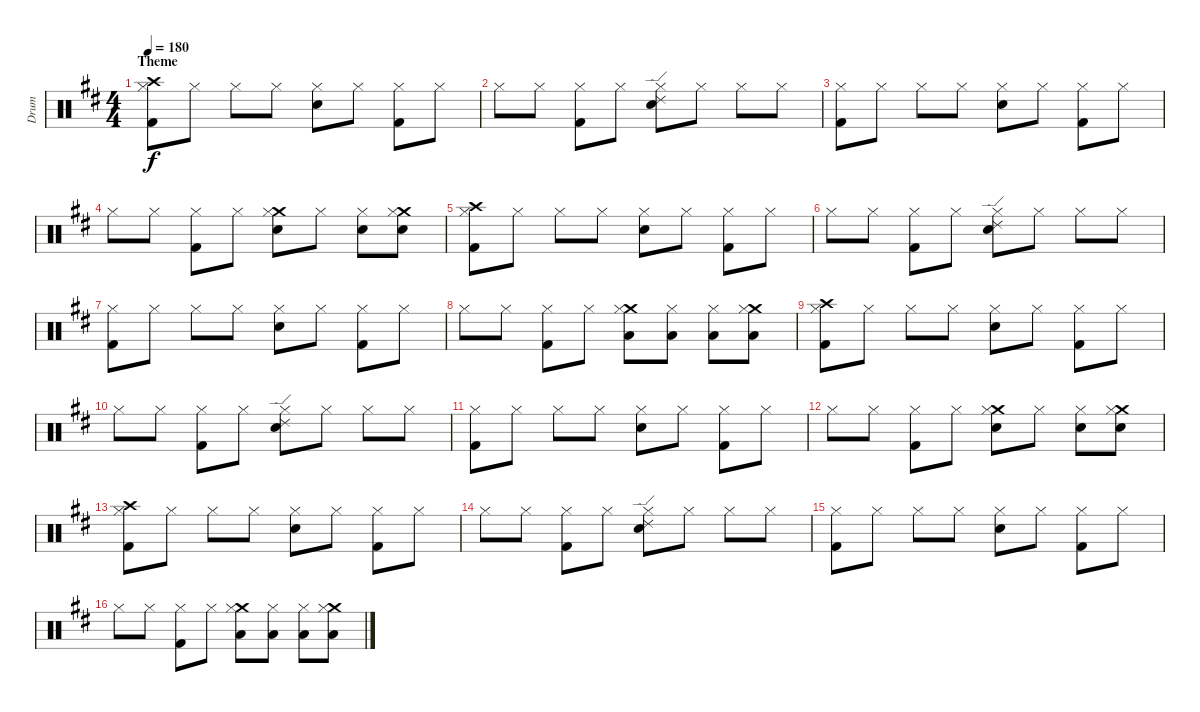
\track ("Drum" "Drum") {instrument percussion}
\staff {score}
\articulation defaults
\ts (4 4)
\section ("" "Theme")
\tempo 180
\clef neutral
\ks d
("Crash high (hit)" "Hi-Hat (closed)" "Kick (hit) 2").8{dy f} "Hi-Hat (closed)".8 "Hi-Hat (closed)".8 "Hi-Hat (closed)".8 ("Hi-Hat (closed)" "Snare (hit) 2").8 "Hi-Hat (closed)".8 ("Hi-Hat (closed)" "Kick (hit) 2").8 "Hi-Hat (closed)".8 |
"Hi-Hat (closed)".8 "Hi-Hat (closed)".8 ("Hi-Hat (closed)" "Kick (hit) 2").8 "Hi-Hat (closed)".8 ("Ride (edge) 2" "Hi-Hat (closed)" "Snare (hit) 2").8 "Hi-Hat (closed)".8 "Hi-Hat (closed)".8 "Hi-Hat (closed)".8 |
("Hi-Hat (closed)" "Kick (hit) 2").8 "Hi-Hat (closed)".8 "Hi-Hat (closed)".8 "Hi-Hat (closed)".8 ("Hi-Hat (closed)" "Snare (hit) 2").8 "Hi-Hat (closed)".8 ("Hi-Hat (closed)" "Kick (hit) 2").8 "Hi-Hat (closed)".8 |
"Hi-Hat (closed)".8 "Hi-Hat (closed)".8 ("Hi-Hat (closed)" "Kick (hit) 2").8 "Hi-Hat (closed)".8 ("Crash medium (hit)" "Hi-Hat (closed)" "Snare (hit) 2").8 "Hi-Hat (closed)".8 ("Hi-Hat (closed)" "Snare (hit) 2").8 ("Crash medium (hit)" "Hi-Hat (closed)" "Snare (hit) 2").8 |
("Crash high (hit)" "Hi-Hat (closed)" "Kick (hit) 2").8 "Hi-Hat (closed)".8 "Hi-Hat (closed)".8 "Hi-Hat (closed)".8 ("Hi-Hat (closed)" "Snare (hit) 2").8 "Hi-Hat (closed)".8 ("Hi-Hat (closed)" "Kick (hit) 2").8 "Hi-Hat (closed)".8 |
"Hi-Hat (closed)".8 "Hi-Hat (closed)".8 ("Hi-Hat (closed)" "Kick (hit) 2").8 "Hi-Hat (closed)".8 ("Ride (edge) 2" "Hi-Hat (closed)" "Snare (hit) 2").8 "Hi-Hat (closed)".8 "Hi-Hat (closed)".8 "Hi-Hat (closed)".8 |
("Hi-Hat (closed)" "Kick (hit) 2").8 "Hi-Hat (closed)".8 "Hi-Hat (closed)".8 "Hi-Hat (closed)".8 ("Hi-Hat (closed)" "Snare (hit) 2").8 "Hi-Hat (closed)".8 ("Hi-Hat (closed)" "Kick (hit) 2").8 "Hi-Hat (closed)".8 |
"Hi-Hat (closed)".8 "Hi-Hat (closed)".8 ("Hi-Hat (closed)" "Kick (hit) 2").8 "Hi-Hat (closed)".8 ("Crash medium (hit)" "Hi-Hat (closed)" "Low Tom (hit)").8 ("Hi-Hat (closed)" "Low Tom (hit)").8 ("Hi-Hat (closed)" "Low Floor Tom (hit)").8 ("Crash medium (hit)" "Hi-Hat (closed)" "Low Floor Tom (hit)").8 |
("Crash high (hit)" "Hi-Hat (closed)" "Kick (hit) 2").8 "Hi-Hat (closed)".8 "Hi-Hat (closed)".8 "Hi-Hat (closed)".8 ("Hi-Hat (closed)" "Snare (hit) 2").8 "Hi-Hat (closed)".8 ("Hi-Hat (closed)" "Kick (hit) 2").8 "Hi-Hat (closed)".8 |
"Hi-Hat (closed)".8 "Hi-Hat (closed)".8 ("Hi-Hat (closed)" "Kick (hit) 2").8 "Hi-Hat (closed)".8 ("Ride (edge) 2" "Hi-Hat (closed)" "Snare (hit) 2").8 "Hi-Hat (closed)".8 "Hi-Hat (closed)".8 "Hi-Hat (closed)".8 |
("Hi-Hat (closed)" "Kick (hit) 2").8 "Hi-Hat (closed)".8 "Hi-Hat (closed)".8 "Hi-Hat (closed)".8 ("Hi-Hat (closed)" "Snare (hit) 2").8 "Hi-Hat (closed)".8 ("Hi-Hat (closed)" "Kick (hit) 2").8 "Hi-Hat (closed)".8 |
"Hi-Hat (closed)".8 "Hi-Hat (closed)".8 ("Hi-Hat (closed)" "Kick (hit) 2").8 "Hi-Hat (closed)".8 ("Crash medium (hit)" "Hi-Hat (closed)" "Snare (hit) 2").8 "Hi-Hat (closed)".8 ("Hi-Hat (closed)" "Snare (hit) 2").8 ("Crash medium (hit)" "Hi-Hat (closed)" "Snare (hit) 2").8 |
("Crash high (hit)" "Hi-Hat (closed)" "Kick (hit) 2").8 "Hi-Hat (closed)".8 "Hi-Hat (closed)".8 "Hi-Hat (closed)".8 ("Hi-Hat (closed)" "Snare (hit) 2").8 "Hi-Hat (closed)".8 ("Hi-Hat (closed)" "Kick (hit) 2").8 "Hi-Hat (closed)".8 |
"Hi-Hat (closed)".8 "Hi-Hat (closed)".8 ("Hi-Hat (closed)" "Kick (hit) 2").8 "Hi-Hat (closed)".8 ("Ride (edge) 2" "Hi-Hat (closed)" "Snare (hit) 2").8 "Hi-Hat (closed)".8 "Hi-Hat (closed)".8 "Hi-Hat (closed)".8 |
("Hi-Hat (closed)" "Kick (hit) 2").8 "Hi-Hat (closed)".8 "Hi-Hat (closed)".8 "Hi-Hat (closed)".8 ("Hi-Hat (closed)" "Snare (hit) 2").8 "Hi-Hat (closed)".8 ("Hi-Hat (closed)" "Kick (hit) 2").8 "Hi-Hat (closed)".8 |
"Hi-Hat (closed)".8 "Hi-Hat (closed)".8 ("Hi-Hat (closed)" "Kick (hit) 2").8 "Hi-Hat (closed)".8 ("Crash medium (hit)" "Hi-Hat (closed)" "Low Tom (hit)").8 ("Hi-Hat (closed)" "Low Tom (hit)").8 ("Hi-Hat (closed)" "Low Floor Tom (hit)").8 ("Crash medium (hit)" "Hi-Hat (closed)" "Low Floor Tom (hit)").8
